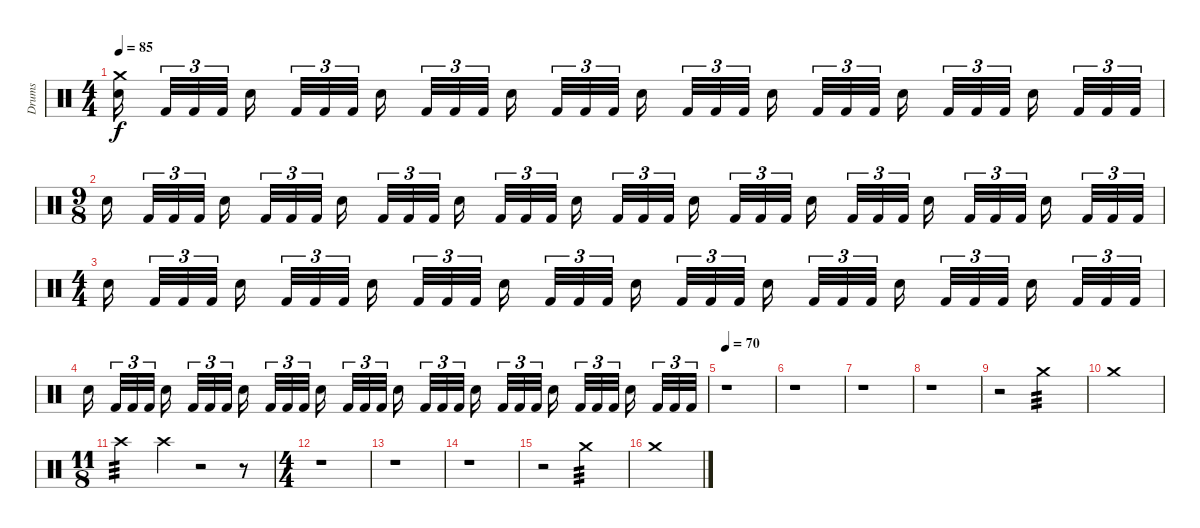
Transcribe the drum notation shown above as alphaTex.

\track ("Drums" "Drums") {instrument percussion}
\staff {score}
\articulation defaults
\ts (4 4)
\tempo 85
\clef neutral
\ks c
("Crash medium (hit)" "Electric Snare (hit)").16{dy f beam splitsecondary} "Kick (hit) 2".32{tu (3 2)} "Kick (hit) 2".32{tu (3 2)} "Kick (hit) 2".32{tu (3 2) beam splitsecondary} "Electric Snare (hit)".16{beam splitsecondary} "Kick (hit) 2".32{tu (3 2)} "Kick (hit) 2".32{tu (3 2)} "Kick (hit) 2".32{tu (3 2)} "Electric Snare (hit)".16{beam splitsecondary} "Kick (hit) 2".32{tu (3 2)} "Kick (hit) 2".32{tu (3 2)} "Kick (hit) 2".32{tu (3 2) beam splitsecondary} "Electric Snare (hit)".16{beam splitsecondary} "Kick (hit) 2".32{tu (3 2)} "Kick (hit) 2".32{tu (3 2)} "Kick (hit) 2".32{tu (3 2)} "Electric Snare (hit)".16{beam splitsecondary} "Kick (hit) 2".32{tu (3 2)} "Kick (hit) 2".32{tu (3 2)} "Kick (hit) 2".32{tu (3 2) beam splitsecondary} "Electric Snare (hit)".16{beam splitsecondary} "Kick (hit) 2".32{tu (3 2)} "Kick (hit) 2".32{tu (3 2)} "Kick (hit) 2".32{tu (3 2)} "Electric Snare (hit)".16{beam splitsecondary} "Kick (hit) 2".32{tu (3 2)} "Kick (hit) 2".32{tu (3 2)} "Kick (hit) 2".32{tu (3 2) beam splitsecondary} "Electric Snare (hit)".16{beam splitsecondary} "Kick (hit) 2".32{tu (3 2)} "Kick (hit) 2".32{tu (3 2)} "Kick (hit) 2".32{tu (3 2)} |
\ts (9 8)
"Electric Snare (hit)".16{beam splitsecondary} "Kick (hit) 2".32{tu (3 2)} "Kick (hit) 2".32{tu (3 2)} "Kick (hit) 2".32{tu (3 2) beam splitsecondary} "Electric Snare (hit)".16{beam splitsecondary} "Kick (hit) 2".32{tu (3 2)} "Kick (hit) 2".32{tu (3 2)} "Kick (hit) 2".32{tu (3 2) beam splitsecondary} "Electric Snare (hit)".16{beam splitsecondary} "Kick (hit) 2".32{tu (3 2)} "Kick (hit) 2".32{tu (3 2)} "Kick (hit) 2".32{tu (3 2)} "Electric Snare (hit)".16{beam splitsecondary} "Kick (hit) 2".32{tu (3 2)} "Kick (hit) 2".32{tu (3 2)} "Kick (hit) 2".32{tu (3 2) beam splitsecondary} "Electric Snare (hit)".16{beam splitsecondary} "Kick (hit) 2".32{tu (3 2)} "Kick (hit) 2".32{tu (3 2)} "Kick (hit) 2".32{tu (3 2) beam splitsecondary} "Electric Snare (hit)".16{beam splitsecondary} "Kick (hit) 2".32{tu (3 2)} "Kick (hit) 2".32{tu (3 2)} "Kick (hit) 2".32{tu (3 2)} "Electric Snare (hit)".16{beam splitsecondary} "Kick (hit) 2".32{tu (3 2)} "Kick (hit) 2".32{tu (3 2)} "Kick (hit) 2".32{tu (3 2) beam splitsecondary} "Electric Snare (hit)".16{beam splitsecondary} "Kick (hit) 2".32{tu (3 2)} "Kick (hit) 2".32{tu (3 2)} "Kick (hit) 2".32{tu (3 2) beam splitsecondary} "Electric Snare (hit)".16{beam splitsecondary} "Kick (hit) 2".32{tu (3 2)} "Kick (hit) 2".32{tu (3 2)} "Kick (hit) 2".32{tu (3 2)} |
\ts (4 4)
"Electric Snare (hit)".16{beam splitsecondary} "Kick (hit) 2".32{tu (3 2)} "Kick (hit) 2".32{tu (3 2)} "Kick (hit) 2".32{tu (3 2) beam splitsecondary} "Electric Snare (hit)".16{beam splitsecondary} "Kick (hit) 2".32{tu (3 2)} "Kick (hit) 2".32{tu (3 2)} "Kick (hit) 2".32{tu (3 2)} "Electric Snare (hit)".16{beam splitsecondary} "Kick (hit) 2".32{tu (3 2)} "Kick (hit) 2".32{tu (3 2)} "Kick (hit) 2".32{tu (3 2) beam splitsecondary} "Electric Snare (hit)".16{beam splitsecondary} "Kick (hit) 2".32{tu (3 2)} "Kick (hit) 2".32{tu (3 2)} "Kick (hit) 2".32{tu (3 2)} "Electric Snare (hit)".16{beam splitsecondary} "Kick (hit) 2".32{tu (3 2)} "Kick (hit) 2".32{tu (3 2)} "Kick (hit) 2".32{tu (3 2) beam splitsecondary} "Electric Snare (hit)".16{beam splitsecondary} "Kick (hit) 2".32{tu (3 2)} "Kick (hit) 2".32{tu (3 2)} "Kick (hit) 2".32{tu (3 2)} "Electric Snare (hit)".16{beam splitsecondary} "Kick (hit) 2".32{tu (3 2)} "Kick (hit) 2".32{tu (3 2)} "Kick (hit) 2".32{tu (3 2) beam splitsecondary} "Electric Snare (hit)".16{beam splitsecondary} "Kick (hit) 2".32{tu (3 2)} "Kick (hit) 2".32{tu (3 2)} "Kick (hit) 2".32{tu (3 2)} |
"Electric Snare (hit)".16{beam splitsecondary} "Kick (hit) 2".32{tu (3 2)} "Kick (hit) 2".32{tu (3 2)} "Kick (hit) 2".32{tu (3 2) beam splitsecondary} "Electric Snare (hit)".16{beam splitsecondary} "Kick (hit) 2".32{tu (3 2)} "Kick (hit) 2".32{tu (3 2)} "Kick (hit) 2".32{tu (3 2)} "Electric Snare (hit)".16{beam splitsecondary} "Kick (hit) 2".32{tu (3 2)} "Kick (hit) 2".32{tu (3 2)} "Kick (hit) 2".32{tu (3 2) beam splitsecondary} "Electric Snare (hit)".16{beam splitsecondary} "Kick (hit) 2".32{tu (3 2)} "Kick (hit) 2".32{tu (3 2)} "Kick (hit) 2".32{tu (3 2)} "Electric Snare (hit)".16{beam splitsecondary} "Kick (hit) 2".32{tu (3 2)} "Kick (hit) 2".32{tu (3 2)} "Kick (hit) 2".32{tu (3 2) beam splitsecondary} "Electric Snare (hit)".16{beam splitsecondary} "Kick (hit) 2".32{tu (3 2)} "Kick (hit) 2".32{tu (3 2)} "Kick (hit) 2".32{tu (3 2)} "Electric Snare (hit)".16{beam splitsecondary} "Kick (hit) 2".32{tu (3 2)} "Kick (hit) 2".32{tu (3 2)} "Kick (hit) 2".32{tu (3 2) beam splitsecondary} "Electric Snare (hit)".16{beam splitsecondary} "Kick (hit) 2".32{tu (3 2)} "Kick (hit) 2".32{tu (3 2)} "Kick (hit) 2".32{tu (3 2)} |
\tempo 70
r.1 |
r.1 |
r.1 |
r.1 |
r.2{volume 0} "Crash medium (hit)".2{tp 3 volume 14} |
"Crash medium (hit)".1{volume 0} |
\ts (11 8)
"Crash high (hit)".2{tp 3 volume 14} "Crash high (hit)".4 r.2 r.8 |
\ts (4 4)
r.1 |
r.1 |
r.1 |
r.2{volume 0} "Crash medium (hit)".2{tp 3 volume 14} |
"Crash medium (hit)".1{volume 0}
